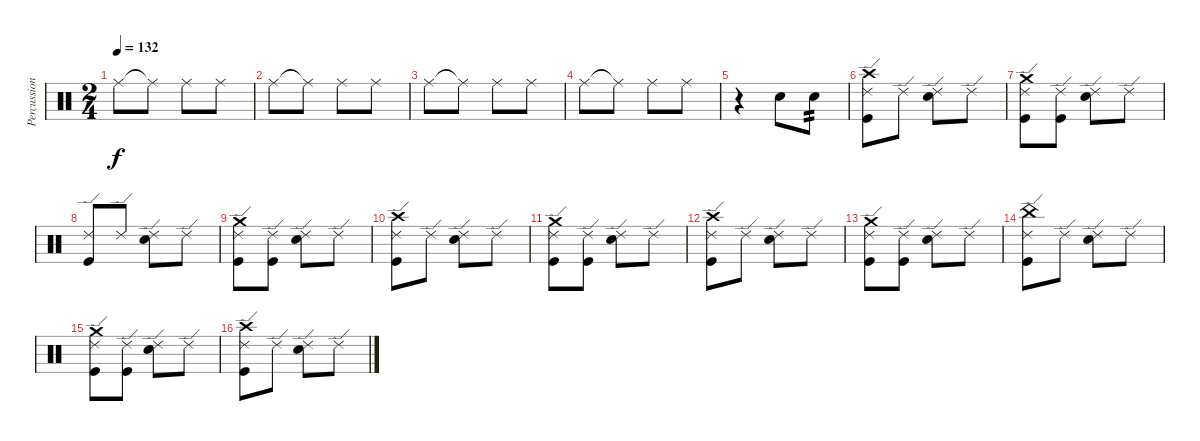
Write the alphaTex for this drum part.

\track ("Percussion" "Percussion") {instrument percussion}
\staff {score}
\articulation defaults
\ts (2 4)
\tempo 132
\clef neutral
\ks c "Ride (middle)".8{dy f} "Ride (middle)"{t}.8 "Ride (middle)".8 "Ride (middle)".8
|
"Ride (middle)".8 "Ride (middle)"{t}.8 "Ride (middle)".8 "Ride (middle)".8 |
"Ride (middle)".8 "Ride (middle)"{t}.8 "Ride (middle)".8 "Ride (middle)".8 |
"Ride (middle)".8 "Ride (middle)"{t}.8 "Ride (middle)".8 "Ride (middle)".8 |
r.4 "Electric Snare (hit)".8 "Electric Snare (hit)".8{tp 2} |
("Crash high (hit)" "Ride (edge) 2" "Kick (hit)").8 "Ride (edge) 2".8 ("Ride (edge) 2" "Electric Snare (hit)").8 "Ride (edge) 2".8 |
("Crash medium (hit)" "Ride (edge) 2" "Kick (hit)").8 ("Ride (edge) 2" "Kick (hit)").8 ("Ride (edge) 2" "Electric Snare (hit)").8 "Ride (edge) 2".8 |
("Ride (edge) 2" "Kick (hit)").8 "Ride (edge) 2".8 ("Ride (edge) 2" "Electric Snare (hit)").8 "Ride (edge) 2".8 |
("Crash medium (hit)" "Ride (edge) 2" "Kick (hit)").8 ("Ride (edge) 2" "Kick (hit)").8 ("Ride (edge) 2" "Electric Snare (hit)").8 "Ride (edge) 2".8 |
("Crash high (hit)" "Ride (edge) 2" "Kick (hit)").8 "Ride (edge) 2".8 ("Ride (edge) 2" "Electric Snare (hit)").8 "Ride (edge) 2".8 |
("Crash medium (hit)" "Ride (edge) 2" "Kick (hit)").8 ("Ride (edge) 2" "Kick (hit)").8 ("Ride (edge) 2" "Electric Snare (hit)").8 "Ride (edge) 2".8 |
("Crash high (hit)" "Ride (edge) 2" "Kick (hit)").8 "Ride (edge) 2".8 ("Ride (edge) 2" "Electric Snare (hit)").8 "Ride (edge) 2".8 |
("Crash medium (hit)" "Ride (edge) 2" "Kick (hit)").8 ("Ride (edge) 2" "Kick (hit)").8 ("Ride (edge) 2" "Electric Snare (hit)").8 "Ride (edge) 2".8 |
("China (hit)" "Ride (edge) 2" "Kick (hit)").8 "Ride (edge) 2".8 ("Ride (edge) 2" "Electric Snare (hit)").8 "Ride (edge) 2".8 |
("Crash medium (hit)" "Ride (edge) 2" "Kick (hit)").8 ("Ride (edge) 2" "Kick (hit)").8 ("Ride (edge) 2" "Electric Snare (hit)").8 "Ride (edge) 2".8 |
("Crash high (hit)" "Ride (edge) 2" "Kick (hit)").8 "Ride (edge) 2".8 ("Ride (edge) 2" "Electric Snare (hit)").8 "Ride (edge) 2".8
